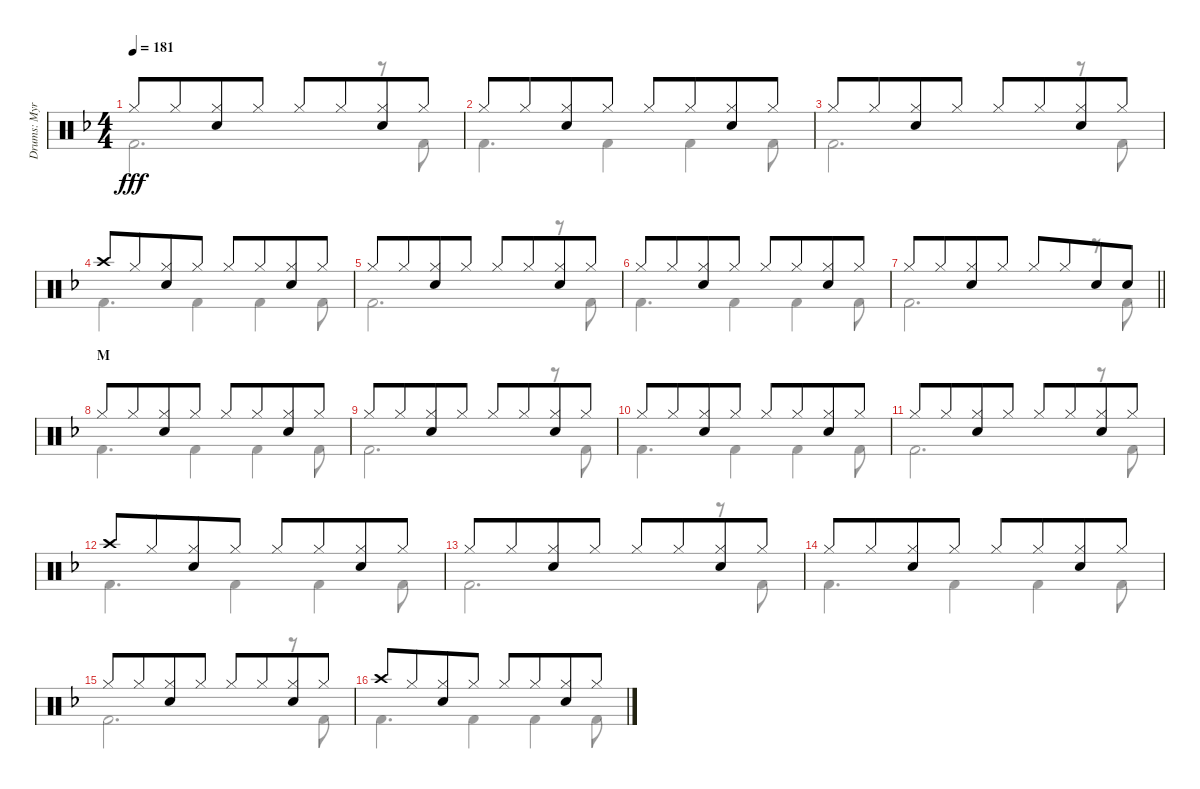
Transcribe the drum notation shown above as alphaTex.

\track ("Drums: Myron" "Drums: Myr") {instrument percussion}
\staff {score}
\articulation defaults
\voice
\ts (4 4)
\tempo 181
\clef neutral
\ks f "Hi-Hat (closed)".8{dy fff} "Hi-Hat (closed)".8{beam merge}
("Hi-Hat (closed)" "Electric Snare (hit)").8 "Hi-Hat (closed)".8 "Hi-Hat (closed)".8 "Hi-Hat (closed)".8{beam merge} ("Hi-Hat (closed)" "Electric Snare (hit)").8 "Hi-Hat (closed)".8 |
"Hi-Hat (closed)".8 "Hi-Hat (closed)".8{beam merge} ("Hi-Hat (closed)" "Electric Snare (hit)").8 "Hi-Hat (closed)".8 "Hi-Hat (closed)".8 "Hi-Hat (closed)".8{beam merge} ("Hi-Hat (closed)" "Electric Snare (hit)").8 "Hi-Hat (closed)".8 |
"Hi-Hat (closed)".8 "Hi-Hat (closed)".8{beam merge} ("Hi-Hat (closed)" "Electric Snare (hit)").8 "Hi-Hat (closed)".8 "Hi-Hat (closed)".8 "Hi-Hat (closed)".8{beam merge} ("Hi-Hat (closed)" "Electric Snare (hit)").8 "Hi-Hat (closed)".8 |
"Crash high (hit)".8 "Hi-Hat (closed)".8{beam merge} ("Hi-Hat (closed)" "Electric Snare (hit)").8 "Hi-Hat (closed)".8 "Hi-Hat (closed)".8 "Hi-Hat (closed)".8{beam merge} ("Hi-Hat (closed)" "Electric Snare (hit)").8 "Hi-Hat (closed)".8 |
"Hi-Hat (closed)".8 "Hi-Hat (closed)".8{beam merge} ("Hi-Hat (closed)" "Electric Snare (hit)").8 "Hi-Hat (closed)".8 "Hi-Hat (closed)".8 "Hi-Hat (closed)".8{beam merge} ("Hi-Hat (closed)" "Electric Snare (hit)").8 "Hi-Hat (closed)".8 |
"Hi-Hat (closed)".8 "Hi-Hat (closed)".8{beam merge} ("Hi-Hat (closed)" "Electric Snare (hit)").8 "Hi-Hat (closed)".8 "Hi-Hat (closed)".8 "Hi-Hat (closed)".8{beam merge} ("Hi-Hat (closed)" "Electric Snare (hit)").8 "Hi-Hat (closed)".8 |
\barLineRight lightlight "Hi-Hat (closed)".8 "Hi-Hat (closed)".8{beam merge}
("Hi-Hat (closed)" "Electric Snare (hit)").8 "Hi-Hat (closed)".8 "Hi-Hat (closed)".8 "Hi-Hat (closed)".8{beam merge} "Electric Snare (hit)".8 "Electric Snare (hit)".8 |
\section ("" "M")
"Hi-Hat (closed)".8 "Hi-Hat (closed)".8{beam merge} ("Hi-Hat (closed)" "Electric Snare (hit)").8 "Hi-Hat (closed)".8 "Hi-Hat (closed)".8 "Hi-Hat (closed)".8{beam merge} ("Hi-Hat (closed)" "Electric Snare (hit)").8 "Hi-Hat (closed)".8 |
"Hi-Hat (closed)".8 "Hi-Hat (closed)".8{beam merge} ("Hi-Hat (closed)" "Electric Snare (hit)").8 "Hi-Hat (closed)".8 "Hi-Hat (closed)".8 "Hi-Hat (closed)".8{beam merge} ("Hi-Hat (closed)" "Electric Snare (hit)").8 "Hi-Hat (closed)".8 |
"Hi-Hat (closed)".8 "Hi-Hat (closed)".8{beam merge} ("Hi-Hat (closed)" "Electric Snare (hit)").8 "Hi-Hat (closed)".8 "Hi-Hat (closed)".8 "Hi-Hat (closed)".8{beam merge} ("Hi-Hat (closed)" "Electric Snare (hit)").8 "Hi-Hat (closed)".8 |
"Hi-Hat (closed)".8 "Hi-Hat (closed)".8{beam merge} ("Hi-Hat (closed)" "Electric Snare (hit)").8 "Hi-Hat (closed)".8 "Hi-Hat (closed)".8 "Hi-Hat (closed)".8{beam merge} ("Hi-Hat (closed)" "Electric Snare (hit)").8 "Hi-Hat (closed)".8 |
"Crash high (hit)".8 "Hi-Hat (closed)".8{beam merge} ("Hi-Hat (closed)" "Electric Snare (hit)").8 "Hi-Hat (closed)".8 "Hi-Hat (closed)".8 "Hi-Hat (closed)".8{beam merge} ("Hi-Hat (closed)" "Electric Snare (hit)").8 "Hi-Hat (closed)".8 |
"Hi-Hat (closed)".8 "Hi-Hat (closed)".8{beam merge} ("Hi-Hat (closed)" "Electric Snare (hit)").8 "Hi-Hat (closed)".8 "Hi-Hat (closed)".8 "Hi-Hat (closed)".8{beam merge} ("Hi-Hat (closed)" "Electric Snare (hit)").8 "Hi-Hat (closed)".8 |
"Hi-Hat (closed)".8 "Hi-Hat (closed)".8{beam merge} ("Hi-Hat (closed)" "Electric Snare (hit)").8 "Hi-Hat (closed)".8 "Hi-Hat (closed)".8 "Hi-Hat (closed)".8{beam merge} ("Hi-Hat (closed)" "Electric Snare (hit)").8 "Hi-Hat (closed)".8 |
"Hi-Hat (closed)".8 "Hi-Hat (closed)".8{beam merge} ("Hi-Hat (closed)" "Electric Snare (hit)").8 "Hi-Hat (closed)".8 "Hi-Hat (closed)".8 "Hi-Hat (closed)".8{beam merge} ("Hi-Hat (closed)" "Electric Snare (hit)").8 "Hi-Hat (closed)".8 |
"Crash high (hit)".8 "Hi-Hat (closed)".8{beam merge} ("Hi-Hat (closed)" "Electric Snare (hit)").8 "Hi-Hat (closed)".8 "Hi-Hat (closed)".8 "Hi-Hat (closed)".8{beam merge} ("Hi-Hat (closed)" "Electric Snare (hit)").8 "Hi-Hat (closed)".8
\voice
\clef neutral
\ottava regular
\simile none
\ks f "Kick (hit) 2".2{d dy fff}
r.8 "Kick (hit) 2".8 |
"Kick (hit) 2".4{d} "Kick (hit) 2".4 "Kick (hit) 2".4 "Kick (hit) 2".8 |
"Kick (hit) 2".2{d} r.8 "Kick (hit) 2".8 |
"Kick (hit) 2".4{d} "Kick (hit) 2".4 "Kick (hit) 2".4 "Kick (hit) 2".8 |
"Kick (hit) 2".2{d} r.8 "Kick (hit) 2".8 |
"Kick (hit) 2".4{d} "Kick (hit) 2".4 "Kick (hit) 2".4 "Kick (hit) 2".8 |
\barLineRight lightlight "Kick (hit) 2".2{d}
r.8 "Kick (hit) 2".8 |
"Kick (hit) 2".4{d} "Kick (hit) 2".4 "Kick (hit) 2".4 "Kick (hit) 2".8 |
"Kick (hit) 2".2{d} r.8 "Kick (hit) 2".8 |
"Kick (hit) 2".4{d} "Kick (hit) 2".4 "Kick (hit) 2".4 "Kick (hit) 2".8 |
"Kick (hit) 2".2{d} r.8 "Kick (hit) 2".8 |
"Kick (hit) 2".4{d} "Kick (hit) 2".4 "Kick (hit) 2".4 "Kick (hit) 2".8 |
"Kick (hit) 2".2{d} r.8 "Kick (hit) 2".8 |
"Kick (hit) 2".4{d} "Kick (hit) 2".4 "Kick (hit) 2".4 "Kick (hit) 2".8 |
"Kick (hit) 2".2{d} r.8 "Kick (hit) 2".8 |
"Kick (hit) 2".4{d} "Kick (hit) 2".4 "Kick (hit) 2".4 "Kick (hit) 2".8
